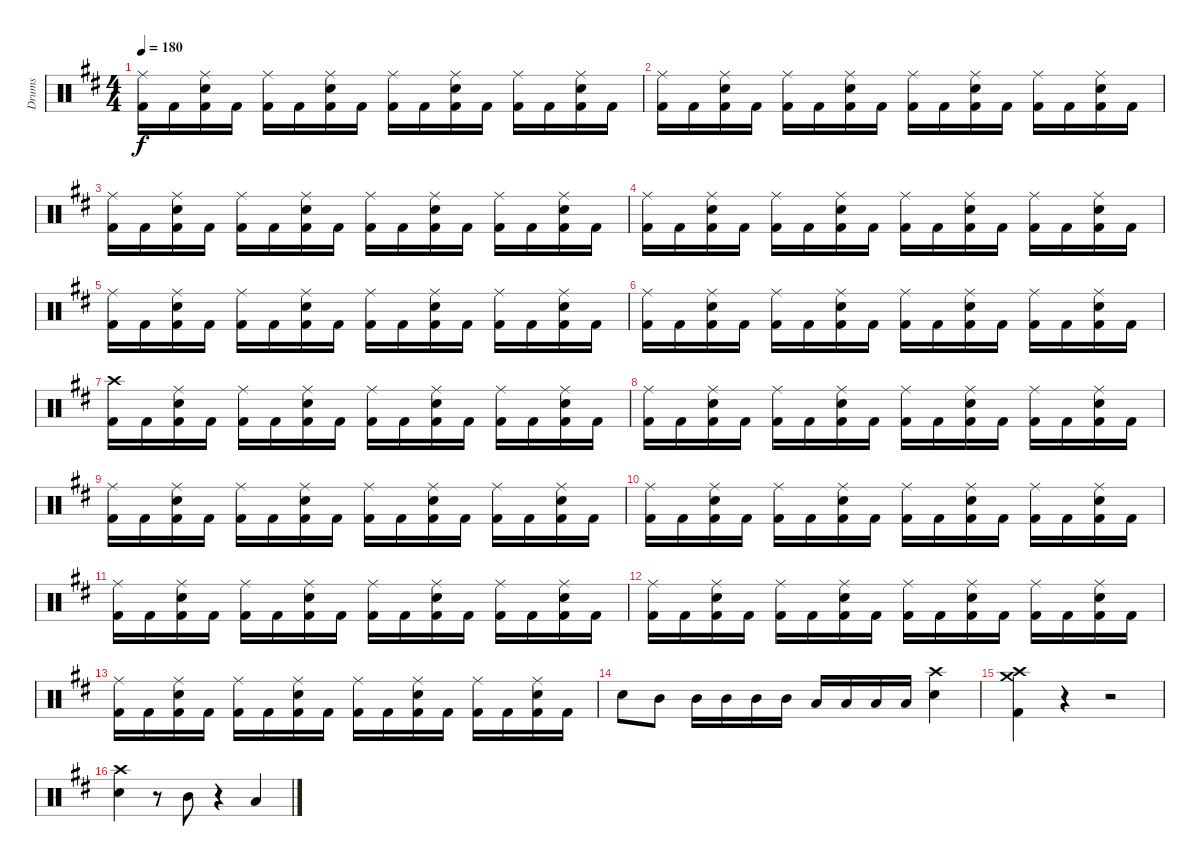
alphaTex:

\track ("Drums" "Drums") {instrument percussion}
\staff {score}
\articulation defaults
\ts (4 4)
\tempo 180
\clef neutral
\ks bminor
("Ride (middle)" "Kick (hit) 2").16{dy f} "Kick (hit) 2".16 ("Ride (middle)" "Electric Snare (hit)" "Kick (hit) 2").16 "Kick (hit) 2".16 ("Ride (middle)" "Kick (hit) 2").16 "Kick (hit) 2".16 ("Ride (middle)" "Electric Snare (hit)" "Kick (hit) 2").16 "Kick (hit) 2".16 ("Ride (middle)" "Kick (hit) 2").16 "Kick (hit) 2".16 ("Ride (middle)" "Electric Snare (hit)" "Kick (hit) 2").16 "Kick (hit) 2".16 ("Ride (middle)" "Kick (hit) 2").16 "Kick (hit) 2".16 ("Ride (middle)" "Electric Snare (hit)" "Kick (hit) 2").16 "Kick (hit) 2".16 |
("Ride (middle)" "Kick (hit) 2").16 "Kick (hit) 2".16 ("Ride (middle)" "Electric Snare (hit)" "Kick (hit) 2").16 "Kick (hit) 2".16 ("Ride (middle)" "Kick (hit) 2").16 "Kick (hit) 2".16 ("Ride (middle)" "Electric Snare (hit)" "Kick (hit) 2").16 "Kick (hit) 2".16 ("Ride (middle)" "Kick (hit) 2").16 "Kick (hit) 2".16 ("Ride (middle)" "Electric Snare (hit)" "Kick (hit) 2").16 "Kick (hit) 2".16 ("Ride (middle)" "Kick (hit) 2").16 "Kick (hit) 2".16 ("Ride (middle)" "Electric Snare (hit)" "Kick (hit) 2").16 "Kick (hit) 2".16 |
("Ride (middle)" "Kick (hit) 2").16 "Kick (hit) 2".16 ("Ride (middle)" "Electric Snare (hit)" "Kick (hit) 2").16 "Kick (hit) 2".16 ("Ride (middle)" "Kick (hit) 2").16 "Kick (hit) 2".16 ("Ride (middle)" "Electric Snare (hit)" "Kick (hit) 2").16 "Kick (hit) 2".16 ("Ride (middle)" "Kick (hit) 2").16 "Kick (hit) 2".16 ("Ride (middle)" "Electric Snare (hit)" "Kick (hit) 2").16 "Kick (hit) 2".16 ("Ride (middle)" "Kick (hit) 2").16 "Kick (hit) 2".16 ("Ride (middle)" "Electric Snare (hit)" "Kick (hit) 2").16 "Kick (hit) 2".16 |
("Ride (middle)" "Kick (hit) 2").16 "Kick (hit) 2".16 ("Ride (middle)" "Electric Snare (hit)" "Kick (hit) 2").16 "Kick (hit) 2".16 ("Ride (middle)" "Kick (hit) 2").16 "Kick (hit) 2".16 ("Ride (middle)" "Electric Snare (hit)" "Kick (hit) 2").16 "Kick (hit) 2".16 ("Ride (middle)" "Kick (hit) 2").16 "Kick (hit) 2".16 ("Ride (middle)" "Electric Snare (hit)" "Kick (hit) 2").16 "Kick (hit) 2".16 ("Ride (middle)" "Kick (hit) 2").16 "Kick (hit) 2".16 ("Ride (middle)" "Electric Snare (hit)" "Kick (hit) 2").16 "Kick (hit) 2".16 |
("Ride (middle)" "Kick (hit) 2").16 "Kick (hit) 2".16 ("Ride (middle)" "Electric Snare (hit)" "Kick (hit) 2").16 "Kick (hit) 2".16 ("Ride (middle)" "Kick (hit) 2").16 "Kick (hit) 2".16 ("Ride (middle)" "Electric Snare (hit)" "Kick (hit) 2").16 "Kick (hit) 2".16 ("Ride (middle)" "Kick (hit) 2").16 "Kick (hit) 2".16 ("Ride (middle)" "Electric Snare (hit)" "Kick (hit) 2").16 "Kick (hit) 2".16 ("Ride (middle)" "Kick (hit) 2").16 "Kick (hit) 2".16 ("Ride (middle)" "Electric Snare (hit)" "Kick (hit) 2").16 "Kick (hit) 2".16 |
("Ride (middle)" "Kick (hit) 2").16 "Kick (hit) 2".16 ("Ride (middle)" "Electric Snare (hit)" "Kick (hit) 2").16 "Kick (hit) 2".16 ("Ride (middle)" "Kick (hit) 2").16 "Kick (hit) 2".16 ("Ride (middle)" "Electric Snare (hit)" "Kick (hit) 2").16 "Kick (hit) 2".16 ("Ride (middle)" "Kick (hit) 2").16 "Kick (hit) 2".16 ("Ride (middle)" "Electric Snare (hit)" "Kick (hit) 2").16 "Kick (hit) 2".16 ("Ride (middle)" "Kick (hit) 2").16 "Kick (hit) 2".16 ("Ride (middle)" "Electric Snare (hit)" "Kick (hit) 2").16 "Kick (hit) 2".16 |
("Crash high (hit)" "Kick (hit) 2").16 "Kick (hit) 2".16 ("Ride (middle)" "Electric Snare (hit)" "Kick (hit) 2").16 "Kick (hit) 2".16 ("Ride (middle)" "Kick (hit) 2").16 "Kick (hit) 2".16 ("Ride (middle)" "Electric Snare (hit)" "Kick (hit) 2").16 "Kick (hit) 2".16 ("Ride (middle)" "Kick (hit) 2").16 "Kick (hit) 2".16 ("Ride (middle)" "Electric Snare (hit)" "Kick (hit) 2").16 "Kick (hit) 2".16 ("Ride (middle)" "Kick (hit) 2").16 "Kick (hit) 2".16 ("Ride (middle)" "Electric Snare (hit)" "Kick (hit) 2").16 "Kick (hit) 2".16 |
("Ride (middle)" "Kick (hit) 2").16 "Kick (hit) 2".16 ("Ride (middle)" "Electric Snare (hit)" "Kick (hit) 2").16 "Kick (hit) 2".16 ("Ride (middle)" "Kick (hit) 2").16 "Kick (hit) 2".16 ("Ride (middle)" "Electric Snare (hit)" "Kick (hit) 2").16 "Kick (hit) 2".16 ("Ride (middle)" "Kick (hit) 2").16 "Kick (hit) 2".16 ("Ride (middle)" "Electric Snare (hit)" "Kick (hit) 2").16 "Kick (hit) 2".16 ("Ride (middle)" "Kick (hit) 2").16 "Kick (hit) 2".16 ("Ride (middle)" "Electric Snare (hit)" "Kick (hit) 2").16 "Kick (hit) 2".16 |
("Ride (middle)" "Kick (hit) 2").16 "Kick (hit) 2".16 ("Ride (middle)" "Electric Snare (hit)" "Kick (hit) 2").16 "Kick (hit) 2".16 ("Ride (middle)" "Kick (hit) 2").16 "Kick (hit) 2".16 ("Ride (middle)" "Electric Snare (hit)" "Kick (hit) 2").16 "Kick (hit) 2".16 ("Ride (middle)" "Kick (hit) 2").16 "Kick (hit) 2".16 ("Ride (middle)" "Electric Snare (hit)" "Kick (hit) 2").16 "Kick (hit) 2".16 ("Ride (middle)" "Kick (hit) 2").16 "Kick (hit) 2".16 ("Ride (middle)" "Electric Snare (hit)" "Kick (hit) 2").16 "Kick (hit) 2".16 |
("Ride (middle)" "Kick (hit) 2").16 "Kick (hit) 2".16 ("Ride (middle)" "Electric Snare (hit)" "Kick (hit) 2").16 "Kick (hit) 2".16 ("Ride (middle)" "Kick (hit) 2").16 "Kick (hit) 2".16 ("Ride (middle)" "Electric Snare (hit)" "Kick (hit) 2").16 "Kick (hit) 2".16 ("Ride (middle)" "Kick (hit) 2").16 "Kick (hit) 2".16 ("Ride (middle)" "Electric Snare (hit)" "Kick (hit) 2").16 "Kick (hit) 2".16 ("Ride (middle)" "Kick (hit) 2").16 "Kick (hit) 2".16 ("Ride (middle)" "Electric Snare (hit)" "Kick (hit) 2").16 "Kick (hit) 2".16 |
("Ride (middle)" "Kick (hit) 2").16 "Kick (hit) 2".16 ("Ride (middle)" "Electric Snare (hit)" "Kick (hit) 2").16 "Kick (hit) 2".16 ("Ride (middle)" "Kick (hit) 2").16 "Kick (hit) 2".16 ("Ride (middle)" "Electric Snare (hit)" "Kick (hit) 2").16 "Kick (hit) 2".16 ("Ride (middle)" "Kick (hit) 2").16 "Kick (hit) 2".16 ("Ride (middle)" "Electric Snare (hit)" "Kick (hit) 2").16 "Kick (hit) 2".16 ("Ride (middle)" "Kick (hit) 2").16 "Kick (hit) 2".16 ("Ride (middle)" "Electric Snare (hit)" "Kick (hit) 2").16 "Kick (hit) 2".16 |
("Ride (middle)" "Kick (hit) 2").16 "Kick (hit) 2".16 ("Ride (middle)" "Electric Snare (hit)" "Kick (hit) 2").16 "Kick (hit) 2".16 ("Ride (middle)" "Kick (hit) 2").16 "Kick (hit) 2".16 ("Ride (middle)" "Electric Snare (hit)" "Kick (hit) 2").16 "Kick (hit) 2".16 ("Ride (middle)" "Kick (hit) 2").16 "Kick (hit) 2".16 ("Ride (middle)" "Electric Snare (hit)" "Kick (hit) 2").16 "Kick (hit) 2".16 ("Ride (middle)" "Kick (hit) 2").16 "Kick (hit) 2".16 ("Ride (middle)" "Electric Snare (hit)" "Kick (hit) 2").16 "Kick (hit) 2".16 |
("Ride (middle)" "Kick (hit) 2").16 "Kick (hit) 2".16 ("Ride (middle)" "Electric Snare (hit)" "Kick (hit) 2").16 "Kick (hit) 2".16 ("Ride (middle)" "Kick (hit) 2").16 "Kick (hit) 2".16 ("Ride (middle)" "Electric Snare (hit)" "Kick (hit) 2").16 "Kick (hit) 2".16 ("Ride (middle)" "Kick (hit) 2").16 "Kick (hit) 2".16 ("Ride (middle)" "Electric Snare (hit)" "Kick (hit) 2").16 "Kick (hit) 2".16 ("Ride (middle)" "Kick (hit) 2").16 "Kick (hit) 2".16 ("Ride (middle)" "Electric Snare (hit)" "Kick (hit) 2").16 "Kick (hit) 2".16 |
"Electric Snare (hit)".8 "Mid Tom (hit)".8 "Mid Tom (hit)".16 "Mid Tom (hit)".16 "Mid Tom (hit)".16 "Mid Tom (hit)".16 "Low Tom (hit)".16 "Low Tom (hit)".16 "Low Tom (hit)".16 "Low Tom (hit)".16 ("Crash high (hit)" "Electric Snare (hit)").4 |
("Crash high (hit)" "Crash medium (hit)" "Kick (hit) 2").4 r.4 r.2 |
("Crash high (hit)" "Electric Snare (hit)").4 r.8 "Mid Tom (hit)".8 r.4 "Low Tom (hit)".4
